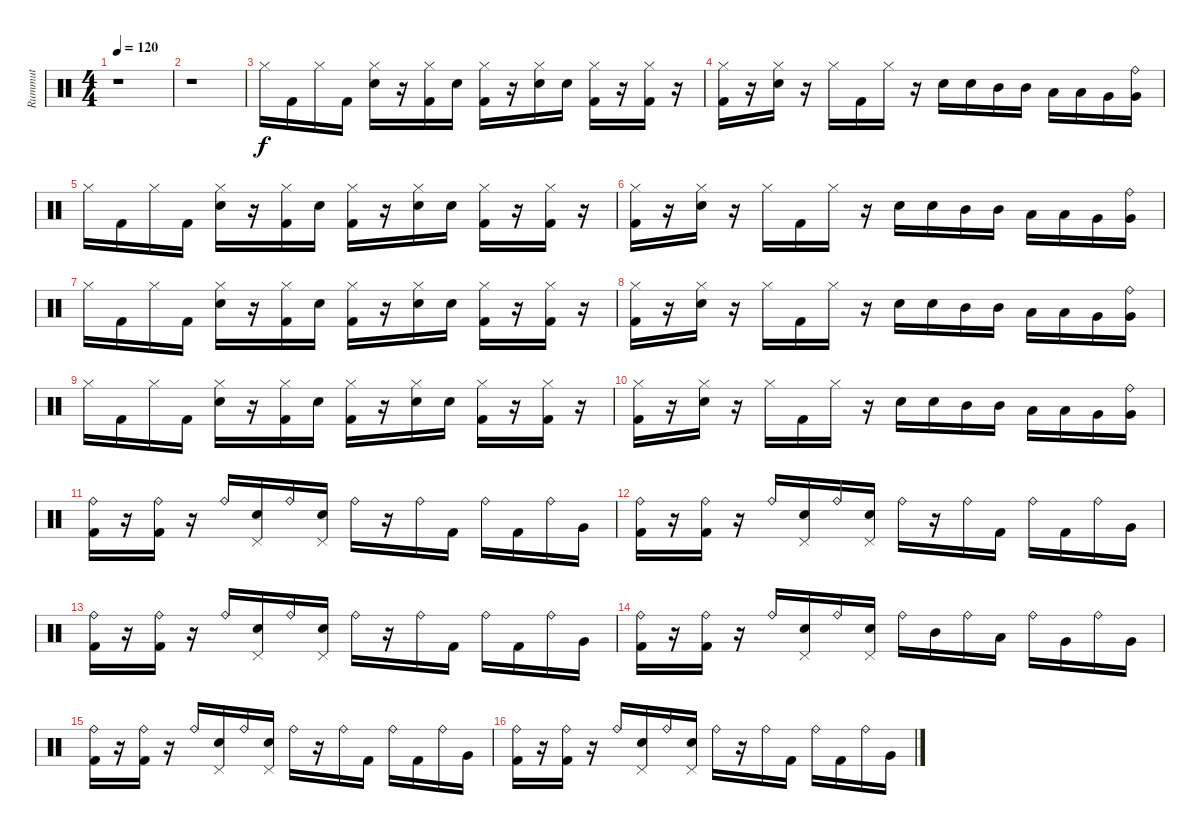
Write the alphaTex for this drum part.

\track ("Rummut" "Rummut") {instrument percussion}
\staff {score}
\articulation defaults
\ts (4 4)
\tempo 120
\clef neutral
\ks c
r.1{dy f} |
r.1 |
"Hi-Hat (closed)".16 "Kick (hit) 2".16 "Hi-Hat (closed)".16 "Kick (hit) 2".16 ("Hi-Hat (closed)" "Snare (hit) 2").16 r.16 ("Hi-Hat (closed)" "Kick (hit) 2").16 "Snare (hit) 2".16 ("Hi-Hat (closed)" "Kick (hit) 2").16 r.16 ("Hi-Hat (closed)" "Snare (hit) 2").16 "Snare (hit) 2".16 ("Hi-Hat (closed)" "Kick (hit) 2").16 r.16 ("Hi-Hat (closed)" "Kick (hit) 2").16 r.16 |
("Hi-Hat (closed)" "Kick (hit) 2").16 r.16 ("Hi-Hat (closed)" "Snare (hit) 2").16 r.16 "Hi-Hat (closed)".16 "Kick (hit) 2".16 "Hi-Hat (closed)".16 r.16 "Snare (hit) 2".16 "Snare (hit) 2".16 "Mid Tom (hit)".16 "Mid Tom (hit)".16 "Low Tom (hit)".16 "Low Tom (hit)".16 "Very Low Tom (hit)".16 ("Very Low Tom (hit)" "Ride (bell)").16 |
"Hi-Hat (closed)".16 "Kick (hit) 2".16 "Hi-Hat (closed)".16 "Kick (hit) 2".16 ("Hi-Hat (closed)" "Snare (hit) 2").16 r.16 ("Hi-Hat (closed)" "Kick (hit) 2").16 "Snare (hit) 2".16 ("Hi-Hat (closed)" "Kick (hit) 2").16 r.16 ("Hi-Hat (closed)" "Snare (hit) 2").16 "Snare (hit) 2".16 ("Hi-Hat (closed)" "Kick (hit) 2").16 r.16 ("Hi-Hat (closed)" "Kick (hit) 2").16 r.16 |
("Hi-Hat (closed)" "Kick (hit) 2").16 r.16 ("Hi-Hat (closed)" "Snare (hit) 2").16 r.16 "Hi-Hat (closed)".16 "Kick (hit) 2".16 "Hi-Hat (closed)".16 r.16 "Snare (hit) 2".16 "Snare (hit) 2".16 "Mid Tom (hit)".16 "Mid Tom (hit)".16 "Low Tom (hit)".16 "Low Tom (hit)".16 "Very Low Tom (hit)".16 ("Very Low Tom (hit)" "Ride (bell)").16 |
"Hi-Hat (closed)".16 "Kick (hit) 2".16 "Hi-Hat (closed)".16 "Kick (hit) 2".16 ("Hi-Hat (closed)" "Snare (hit) 2").16 r.16 ("Hi-Hat (closed)" "Kick (hit) 2").16 "Snare (hit) 2".16 ("Hi-Hat (closed)" "Kick (hit) 2").16 r.16 ("Hi-Hat (closed)" "Snare (hit) 2").16 "Snare (hit) 2".16 ("Hi-Hat (closed)" "Kick (hit) 2").16 r.16 ("Hi-Hat (closed)" "Kick (hit) 2").16 r.16 |
("Hi-Hat (closed)" "Kick (hit) 2").16 r.16 ("Hi-Hat (closed)" "Snare (hit) 2").16 r.16 "Hi-Hat (closed)".16 "Kick (hit) 2".16 "Hi-Hat (closed)".16 r.16 "Snare (hit) 2".16 "Snare (hit) 2".16 "Mid Tom (hit)".16 "Mid Tom (hit)".16 "Low Tom (hit)".16 "Low Tom (hit)".16 "Very Low Tom (hit)".16 ("Very Low Tom (hit)" "Ride (bell)").16 |
"Hi-Hat (closed)".16 "Kick (hit) 2".16 "Hi-Hat (closed)".16 "Kick (hit) 2".16 ("Hi-Hat (closed)" "Snare (hit) 2").16 r.16 ("Hi-Hat (closed)" "Kick (hit) 2").16 "Snare (hit) 2".16 ("Hi-Hat (closed)" "Kick (hit) 2").16 r.16 ("Hi-Hat (closed)" "Snare (hit) 2").16 "Snare (hit) 2".16 ("Hi-Hat (closed)" "Kick (hit) 2").16 r.16 ("Hi-Hat (closed)" "Kick (hit) 2").16 r.16 |
("Hi-Hat (closed)" "Kick (hit) 2").16 r.16 ("Hi-Hat (closed)" "Snare (hit) 2").16 r.16 "Hi-Hat (closed)".16 "Kick (hit) 2".16 "Hi-Hat (closed)".16 r.16 "Snare (hit) 2".16 "Snare (hit) 2".16 "Mid Tom (hit)".16 "Mid Tom (hit)".16 "Low Tom (hit)".16 "Low Tom (hit)".16 "Very Low Tom (hit)".16 ("Very Low Tom (hit)" "Ride (bell)").16 |
("Ride (bell)" "Kick (hit) 2").16 r.16 ("Ride (bell)" "Kick (hit) 2").16 r.16 "Ride (bell)".16 ("Snare (hit) 2" "Pedal Hi-Hat (hit)").16 "Ride (bell)".16 ("Snare (hit) 2" "Pedal Hi-Hat (hit)").16 "Ride (bell)".16 r.16 "Ride (bell)".16 "Kick (hit) 2".16 "Ride (bell)".16 "Kick (hit) 2".16 "Ride (bell)".16 "Very Low Tom (hit)".16 |
("Ride (bell)" "Kick (hit) 2").16 r.16 ("Ride (bell)" "Kick (hit) 2").16 r.16 "Ride (bell)".16 ("Snare (hit) 2" "Pedal Hi-Hat (hit)").16 "Ride (bell)".16 ("Snare (hit) 2" "Pedal Hi-Hat (hit)").16 "Ride (bell)".16 r.16 "Ride (bell)".16 "Kick (hit) 2".16 "Ride (bell)".16 "Kick (hit) 2".16 "Ride (bell)".16 "Very Low Tom (hit)".16 |
("Ride (bell)" "Kick (hit) 2").16 r.16 ("Ride (bell)" "Kick (hit) 2").16 r.16 "Ride (bell)".16 ("Snare (hit) 2" "Pedal Hi-Hat (hit)").16 "Ride (bell)".16 ("Snare (hit) 2" "Pedal Hi-Hat (hit)").16 "Ride (bell)".16 r.16 "Ride (bell)".16 "Kick (hit) 2".16 "Ride (bell)".16 "Kick (hit) 2".16 "Ride (bell)".16 "Very Low Tom (hit)".16 |
("Ride (bell)" "Kick (hit) 2").16 r.16 ("Ride (bell)" "Kick (hit) 2").16 r.16 "Ride (bell)".16 ("Snare (hit) 2" "Pedal Hi-Hat (hit)").16 "Ride (bell)".16 ("Snare (hit) 2" "Pedal Hi-Hat (hit)").16 "Ride (bell)".16 "Mid Tom (hit)".16 "Ride (bell)".16 "Low Tom (hit)".16 "Ride (bell)".16 "Very Low Tom (hit)".16 "Ride (bell)".16 "Very Low Tom (hit)".16 |
("Ride (bell)" "Kick (hit) 2").16 r.16 ("Ride (bell)" "Kick (hit) 2").16 r.16 "Ride (bell)".16 ("Snare (hit) 2" "Pedal Hi-Hat (hit)").16 "Ride (bell)".16 ("Snare (hit) 2" "Pedal Hi-Hat (hit)").16 "Ride (bell)".16 r.16 "Ride (bell)".16 "Kick (hit) 2".16 "Ride (bell)".16 "Kick (hit) 2".16 "Ride (bell)".16 "Very Low Tom (hit)".16 |
("Ride (bell)" "Kick (hit) 2").16 r.16 ("Ride (bell)" "Kick (hit) 2").16 r.16 "Ride (bell)".16 ("Snare (hit) 2" "Pedal Hi-Hat (hit)").16 "Ride (bell)".16 ("Snare (hit) 2" "Pedal Hi-Hat (hit)").16 "Ride (bell)".16 r.16 "Ride (bell)".16 "Kick (hit) 2".16 "Ride (bell)".16 "Kick (hit) 2".16 "Ride (bell)".16 "Very Low Tom (hit)".16
